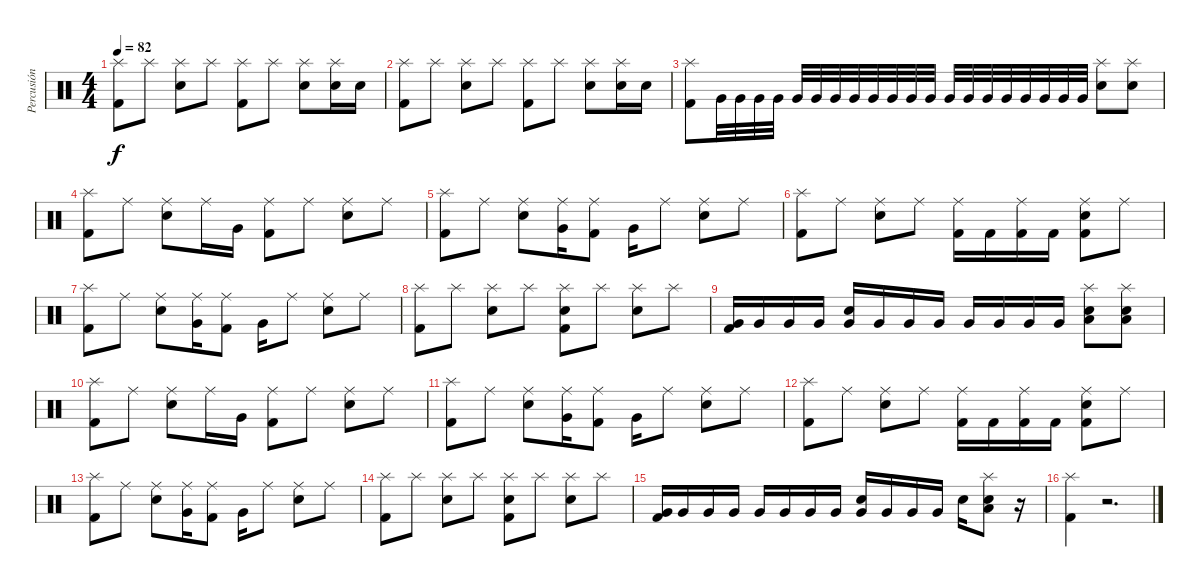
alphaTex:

\track ("Percusión" "Percusión") {instrument percussion}
\staff {score}
\articulation defaults
\ts (4 4)
\tempo 82
\clef neutral
\ks c
("Splash (hit)" "Kick (hit) 2").8{dy f} "Splash (hit)".8 ("Splash (hit)" "Snare (hit) 2").8 "Splash (hit)".8 ("Splash (hit)" "Kick (hit) 2").8 "Splash (hit)".8 ("Splash (hit)" "Snare (hit) 2").8 ("Splash (hit)" "Snare (hit) 2").16 "Snare (hit) 2".16 |
("Splash (hit)" "Kick (hit) 2").8 "Splash (hit)".8 ("Splash (hit)" "Snare (hit) 2").8 "Splash (hit)".8 ("Splash (hit)" "Kick (hit) 2").8 "Splash (hit)".8 ("Splash (hit)" "Snare (hit) 2").8 ("Splash (hit)" "Snare (hit) 2").16 "Snare (hit) 2".16 |
("Splash (hit)" "Kick (hit) 2").8 "Very Low Tom (hit)".32 "Very Low Tom (hit)".32 "Very Low Tom (hit)".32 "Very Low Tom (hit)".32 "Very Low Tom (hit)".32 "Very Low Tom (hit)".32 "Very Low Tom (hit)".32 "Very Low Tom (hit)".32 "Very Low Tom (hit)".32 "Very Low Tom (hit)".32 "Very Low Tom (hit)".32 "Very Low Tom (hit)".32 "Very Low Tom (hit)".32 "Very Low Tom (hit)".32 "Very Low Tom (hit)".32 "Very Low Tom (hit)".32 "Very Low Tom (hit)".32 "Very Low Tom (hit)".32 "Very Low Tom (hit)".32 "Very Low Tom (hit)".32 ("Splash (hit)" "Snare (hit) 2").8 ("Splash (hit)" "Snare (hit) 2").8 |
("Splash (hit)" "Kick (hit) 2").8 "Ride (middle)".8 ("Ride (middle)" "Snare (hit) 2").8 "Ride (middle)".16 "Very Low Tom (hit)".16 ("Ride (middle)" "Kick (hit) 2").8 "Ride (middle)".8 ("Ride (middle)" "Snare (hit) 2").8 "Ride (middle)".8 |
("Splash (hit)" "Kick (hit) 2").8 "Ride (middle)".8 ("Ride (middle)" "Snare (hit) 2").8 ("Ride (middle)" "Very Low Tom (hit)").16 ("Ride (middle)" "Kick (hit) 2").8 "Very Low Tom (hit)".16 "Ride (middle)".8 ("Ride (middle)" "Snare (hit) 2").8 "Ride (middle)".8 |
("Splash (hit)" "Kick (hit) 2").8 "Ride (middle)".8 ("Ride (middle)" "Snare (hit) 2").8 "Ride (middle)".8 ("Ride (middle)" "Kick (hit) 2").16 "Kick (hit) 2".16 ("Ride (middle)" "Kick (hit) 2").16 "Kick (hit) 2".16 ("Ride (middle)" "Snare (hit) 2" "Kick (hit) 2").8 "Ride (middle)".8 |
("Splash (hit)" "Kick (hit) 2").8 "Ride (middle)".8 ("Ride (middle)" "Snare (hit) 2").8 ("Ride (middle)" "Very Low Tom (hit)").16 ("Ride (middle)" "Kick (hit) 2").8 "Very Low Tom (hit)".16 "Ride (middle)".8 ("Ride (middle)" "Snare (hit) 2").8 "Ride (middle)".8 |
("Splash (hit)" "Kick (hit) 2").8 "Splash (hit)".8 ("Splash (hit)" "Snare (hit) 2").8 "Splash (hit)".8 ("Splash (hit)" "Snare (hit) 2" "Kick (hit) 2").8 "Splash (hit)".8 ("Splash (hit)" "Snare (hit) 2").8 "Splash (hit)".8 |
("Very Low Tom (hit)" "Kick (hit) 2").16 "Very Low Tom (hit)".16 "Very Low Tom (hit)".16 "Very Low Tom (hit)".16 ("Very Low Tom (hit)" "Snare (hit) 2").16 "Very Low Tom (hit)".16 "Very Low Tom (hit)".16 "Very Low Tom (hit)".16 "Very Low Tom (hit)".16 "Very Low Tom (hit)".16 "Very Low Tom (hit)".16 "Very Low Tom (hit)".16 ("Splash (hit)" "Low Tom (hit)" "Snare (hit) 2").8 ("Splash (hit)" "Low Tom (hit)" "Snare (hit) 2").8 |
("Splash (hit)" "Kick (hit) 2").8 "Ride (middle)".8 ("Ride (middle)" "Snare (hit) 2").8 "Ride (middle)".16 "Very Low Tom (hit)".16 ("Ride (middle)" "Kick (hit) 2").8 "Ride (middle)".8 ("Ride (middle)" "Snare (hit) 2").8 "Ride (middle)".8 |
("Splash (hit)" "Kick (hit) 2").8 "Ride (middle)".8 ("Ride (middle)" "Snare (hit) 2").8 ("Ride (middle)" "Very Low Tom (hit)").16 ("Ride (middle)" "Kick (hit) 2").8 "Very Low Tom (hit)".16 "Ride (middle)".8 ("Ride (middle)" "Snare (hit) 2").8 "Ride (middle)".8 |
("Splash (hit)" "Kick (hit) 2").8 "Ride (middle)".8 ("Ride (middle)" "Snare (hit) 2").8 "Ride (middle)".8 ("Ride (middle)" "Kick (hit) 2").16 "Kick (hit) 2".16 ("Ride (middle)" "Kick (hit) 2").16 "Kick (hit) 2".16 ("Ride (middle)" "Snare (hit) 2" "Kick (hit) 2").8 "Ride (middle)".8 |
("Splash (hit)" "Kick (hit) 2").8 "Ride (middle)".8 ("Ride (middle)" "Snare (hit) 2").8 ("Ride (middle)" "Very Low Tom (hit)").16 ("Ride (middle)" "Kick (hit) 2").8 "Very Low Tom (hit)".16 "Ride (middle)".8 ("Ride (middle)" "Snare (hit) 2").8 "Ride (middle)".8 |
("Splash (hit)" "Kick (hit) 2").8 "Splash (hit)".8 ("Splash (hit)" "Snare (hit) 2").8 "Splash (hit)".8 ("Splash (hit)" "Snare (hit) 2" "Kick (hit) 2").8 "Splash (hit)".8 ("Splash (hit)" "Snare (hit) 2").8 "Splash (hit)".8 |
("Very Low Tom (hit)" "Kick (hit) 2").16 "Very Low Tom (hit)".16 "Very Low Tom (hit)".16 "Very Low Tom (hit)".16 "Very Low Tom (hit)".16 "Very Low Tom (hit)".16 "Very Low Tom (hit)".16 "Very Low Tom (hit)".16 ("Very Low Tom (hit)" "Snare (hit) 2").16 "Very Low Tom (hit)".16 "Very Low Tom (hit)".16 "Very Low Tom (hit)".16 "Snare (hit) 2".16 ("Splash (hit)" "Low Tom (hit)" "Snare (hit) 2").8 r.16 |
("Splash (hit)" "Kick (hit) 2").4 r.2{d}
